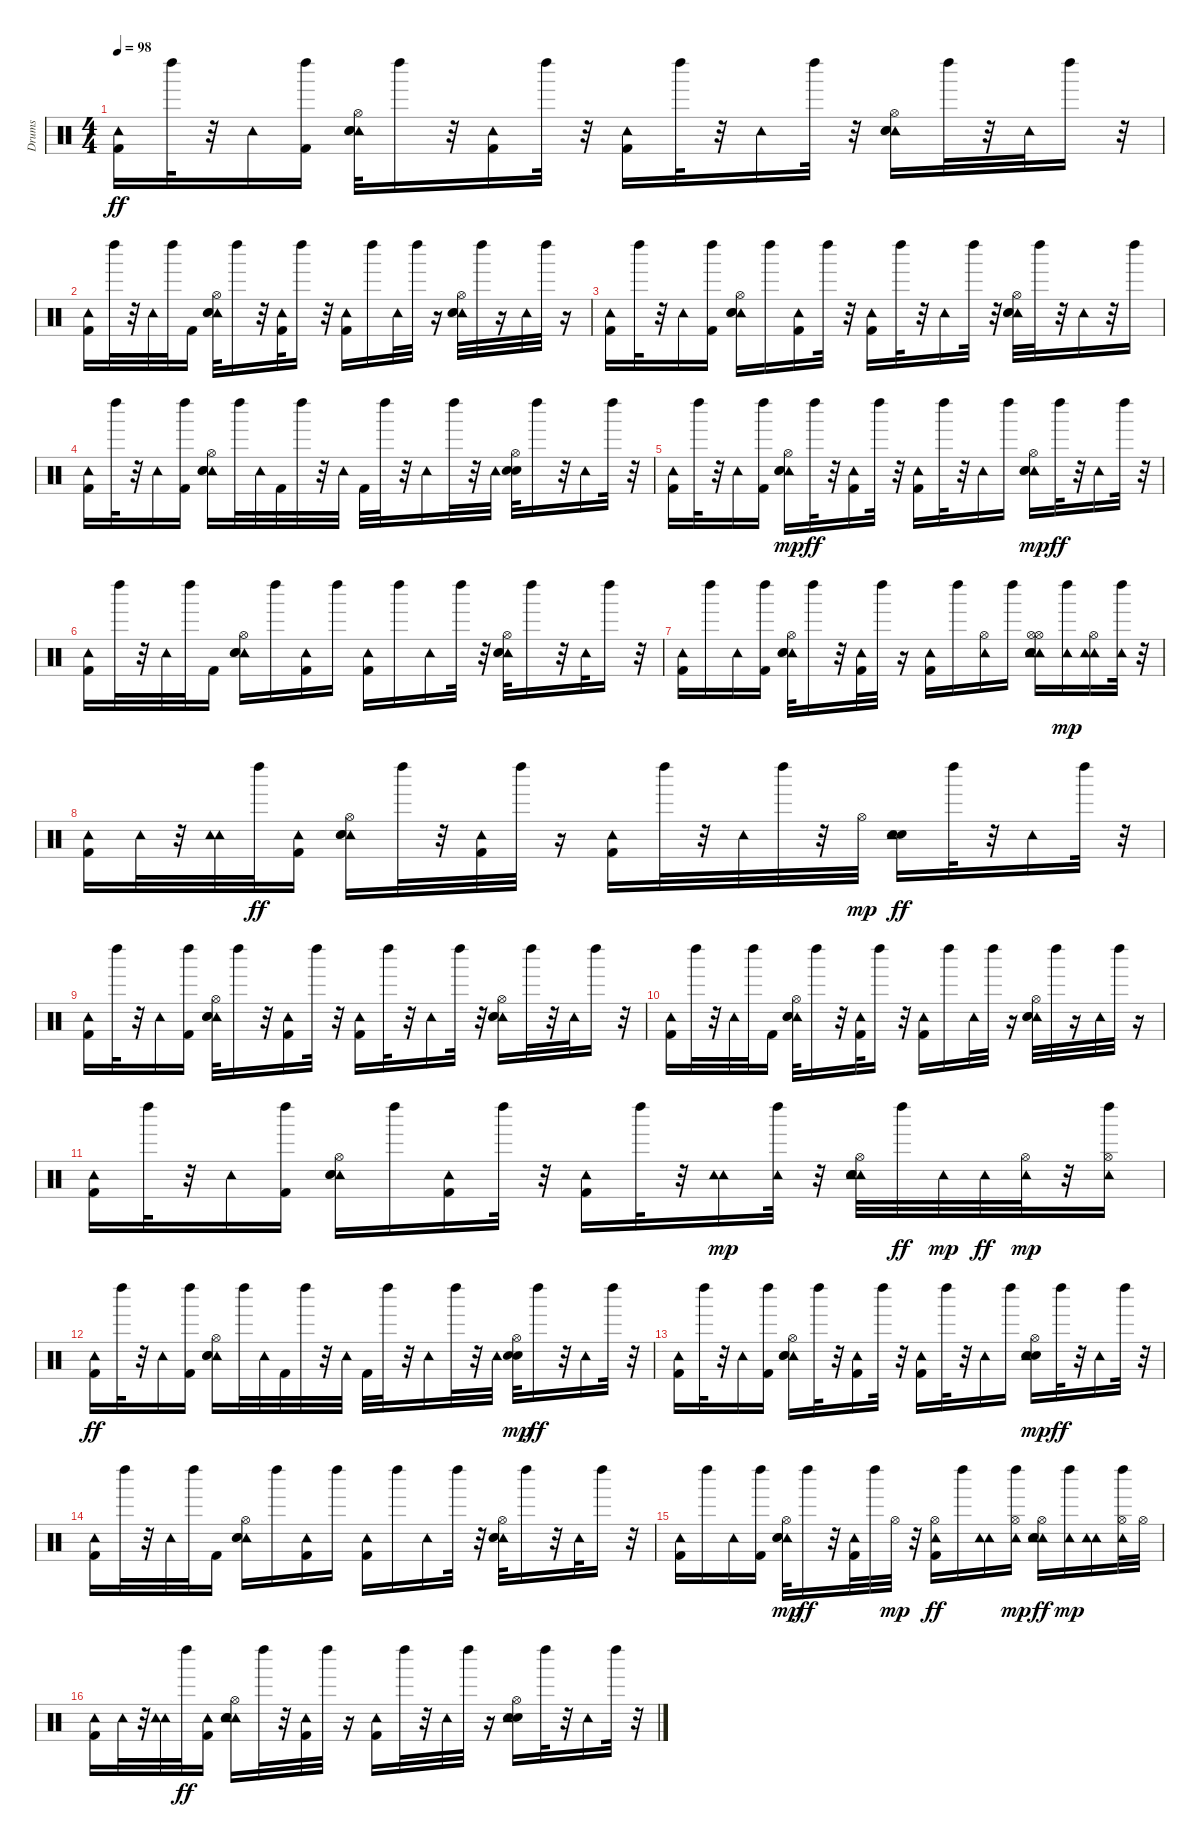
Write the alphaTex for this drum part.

\track ("Drums" "Drums") {instrument percussion}
\staff {score}
\articulation defaults
\ts (4 4)
\tempo 98
\clef neutral
\ks c
("Tambourine (hit)" "Kick (hit) 2").16{dy ff} "Left Maraca (hit)".32 r.32 "Tambourine (hit)".16 ("Left Maraca (hit)" "Kick (hit) 2").16 ("Tambourine (hit)" "Hi-Hat (open)" "Snare (hit) 2" "Electric Snare (hit)").32 "Left Maraca (hit)".16 r.32 ("Tambourine (hit)" "Kick (hit) 2").16 "Left Maraca (hit)".32 r.32 ("Tambourine (hit)" "Kick (hit) 2").16 "Left Maraca (hit)".32 r.32 "Tambourine (hit)".16 "Left Maraca (hit)".32 r.32 ("Tambourine (hit)" "Hi-Hat (open)" "Electric Snare (hit)" "Snare (hit) 2").16 "Left Maraca (hit)".32 r.32 "Tambourine (hit)".32 "Left Maraca (hit)".16 r.32 |
("Tambourine (hit)" "Kick (hit) 2").16 "Left Maraca (hit)".32 r.32 "Tambourine (hit)".32 "Left Maraca (hit)".32 "Kick (hit) 2".16 ("Tambourine (hit)" "Hi-Hat (open)" "Snare (hit) 2" "Electric Snare (hit)").32 "Left Maraca (hit)".16 r.32 ("Tambourine (hit)" "Kick (hit) 2").32 "Left Maraca (hit)".16 r.32 ("Tambourine (hit)" "Kick (hit) 2").16 "Left Maraca (hit)".16 "Tambourine (hit)".32 "Left Maraca (hit)".32 r.16 ("Tambourine (hit)" "Hi-Hat (open)" "Snare (hit) 2" "Electric Snare (hit)").32 "Left Maraca (hit)".32 r.16 "Tambourine (hit)".32 "Left Maraca (hit)".32 r.16 |
("Tambourine (hit)" "Kick (hit) 2").16 "Left Maraca (hit)".32 r.32 "Tambourine (hit)".16 ("Left Maraca (hit)" "Kick (hit) 2").16 ("Hi-Hat (open)" "Tambourine (hit)" "Electric Snare (hit)" "Snare (hit) 2").16 "Left Maraca (hit)".16 ("Tambourine (hit)" "Kick (hit) 2").16 "Left Maraca (hit)".32 r.32 ("Kick (hit) 2" "Tambourine (hit)").16 "Left Maraca (hit)".32 r.32 "Tambourine (hit)".16 "Left Maraca (hit)".32 r.32 ("Tambourine (hit)" "Hi-Hat (open)" "Snare (hit) 2" "Electric Snare (hit)").32 "Left Maraca (hit)".32 r.32 "Tambourine (hit)".16 r.32 "Left Maraca (hit)".16 |
("Tambourine (hit)" "Kick (hit) 2").16 "Left Maraca (hit)".32 r.32 "Tambourine (hit)".16 ("Left Maraca (hit)" "Kick (hit) 2").16 ("Tambourine (hit)" "Hi-Hat (open)" "Snare (hit) 2" "Electric Snare (hit)").16 "Left Maraca (hit)".32 "Tambourine (hit)".32 "Kick (hit) 2".32 "Left Maraca (hit)".32 r.32 "Tambourine (hit)".32 "Kick (hit) 2".32 "Left Maraca (hit)".32 r.32 "Tambourine (hit)".16 "Left Maraca (hit)".32 r.32 "Tambourine (hit)".32 ("Hi-Hat (open)" "Snare (hit) 2" "Electric Snare (hit)").32 "Left Maraca (hit)".16 r.32 "Tambourine (hit)".16 "Left Maraca (hit)".32 r.32 |
("Tambourine (hit)" "Kick (hit) 2").16 "Left Maraca (hit)".32 r.32 "Tambourine (hit)".16 ("Left Maraca (hit)" "Kick (hit) 2").16 ("Tambourine (hit)" "Electric Snare (hit)" "Snare (hit) 2" "Hi-Hat (open)").16{dy mp} "Left Maraca (hit)".32{dy ff} r.32 ("Tambourine (hit)" "Kick (hit) 2").16 "Left Maraca (hit)".32 r.32 ("Kick (hit) 2" "Tambourine (hit)").16 "Left Maraca (hit)".32 r.32 "Tambourine (hit)".16 "Left Maraca (hit)".16 ("Tambourine (hit)" "Electric Snare (hit)" "Snare (hit) 2" "Hi-Hat (open)").16{dy mp} "Left Maraca (hit)".32{dy ff} r.32 "Tambourine (hit)".16 "Left Maraca (hit)".32 r.32 |
("Tambourine (hit)" "Kick (hit) 2").16 "Left Maraca (hit)".32 r.32 "Tambourine (hit)".32 "Left Maraca (hit)".32 "Kick (hit) 2".16 ("Tambourine (hit)" "Hi-Hat (open)" "Electric Snare (hit)" "Snare (hit) 2").16 "Left Maraca (hit)".16 ("Tambourine (hit)" "Kick (hit) 2").16 "Left Maraca (hit)".16 ("Tambourine (hit)" "Kick (hit) 2").16 "Left Maraca (hit)".16 "Tambourine (hit)".16 "Left Maraca (hit)".32 r.32 ("Tambourine (hit)" "Hi-Hat (open)" "Snare (hit) 2" "Electric Snare (hit)").32 "Left Maraca (hit)".16 r.32 "Tambourine (hit)".32 "Left Maraca (hit)".16 r.32 |
("Tambourine (hit)" "Kick (hit) 2").16 "Left Maraca (hit)".16 "Tambourine (hit)".16 ("Left Maraca (hit)" "Kick (hit) 2").16 ("Hi-Hat (open)" "Tambourine (hit)" "Electric Snare (hit)" "Snare (hit) 2").32 "Left Maraca (hit)".16 r.32 ("Tambourine (hit)" "Kick (hit) 2").32 "Left Maraca (hit)".32 r.16 ("Tambourine (hit)" "Kick (hit) 2").16 "Left Maraca (hit)".16 ("Hi-Hat (open)" "Tambourine (hit)").16 "Left Maraca (hit)".16 ("Tambourine (hit)" "Hi-Hat (open)" "Hi-Hat (open)" "Tambourine (hit)" "Electric Snare (hit)" "Snare (hit) 2").16 ("Left Maraca (hit)" "Tambourine (hit)").16{dy mp} ("Hi-Hat (open)" "Tambourine (hit)" "Tambourine (hit)").16 ("Left Maraca (hit)" "Tambourine (hit)").32 r.32 |
("Kick (hit) 2" "Tambourine (hit)").16 "Tambourine (hit)".32 r.32 ("Tambourine (hit)" "Tambourine (hit)").32 "Left Maraca (hit)".32{dy ff} ("Tambourine (hit)" "Kick (hit) 2").16 ("Tambourine (hit)" "Hi-Hat (open)" "Electric Snare (hit)" "Snare (hit) 2").16 "Left Maraca (hit)".32 r.32 ("Tambourine (hit)" "Kick (hit) 2").32 "Left Maraca (hit)".32 r.16 ("Kick (hit) 2" "Tambourine (hit)").16 "Left Maraca (hit)".32 r.32 "Tambourine (hit)".32 "Left Maraca (hit)".32 r.32 "Hi-Hat (open)".32{dy mp} ("Electric Snare (hit)" "Snare (hit) 2" "Tambourine (hit)").16{dy ff} "Left Maraca (hit)".32 r.32 "Tambourine (hit)".16 "Left Maraca (hit)".32 r.32 |
("Tambourine (hit)" "Kick (hit) 2").16 "Left Maraca (hit)".32 r.32 "Tambourine (hit)".16 ("Left Maraca (hit)" "Kick (hit) 2").16 ("Tambourine (hit)" "Hi-Hat (open)" "Snare (hit) 2" "Electric Snare (hit)").32 "Left Maraca (hit)".16 r.32 ("Tambourine (hit)" "Kick (hit) 2").16 "Left Maraca (hit)".32 r.32 ("Tambourine (hit)" "Kick (hit) 2").16 "Left Maraca (hit)".32 r.32 "Tambourine (hit)".16 "Left Maraca (hit)".32 r.32 ("Hi-Hat (open)" "Tambourine (hit)" "Snare (hit) 2" "Electric Snare (hit)").16 "Left Maraca (hit)".32 r.32 "Tambourine (hit)".32 "Left Maraca (hit)".16 r.32 |
("Tambourine (hit)" "Kick (hit) 2").16 "Left Maraca (hit)".32 r.32 "Tambourine (hit)".32 "Left Maraca (hit)".32 "Kick (hit) 2".16 ("Tambourine (hit)" "Hi-Hat (open)" "Electric Snare (hit)" "Snare (hit) 2").32 "Left Maraca (hit)".16 r.32 ("Tambourine (hit)" "Kick (hit) 2").32 "Left Maraca (hit)".16 r.32 ("Tambourine (hit)" "Kick (hit) 2").16 "Left Maraca (hit)".16 "Tambourine (hit)".32 "Left Maraca (hit)".32 r.16 ("Tambourine (hit)" "Hi-Hat (open)" "Snare (hit) 2" "Electric Snare (hit)").32 "Left Maraca (hit)".32 r.16 "Tambourine (hit)".32 "Left Maraca (hit)".32 r.16 |
("Tambourine (hit)" "Kick (hit) 2").16 "Left Maraca (hit)".32 r.32 "Tambourine (hit)".16 ("Left Maraca (hit)" "Kick (hit) 2").16 ("Tambourine (hit)" "Hi-Hat (open)" "Electric Snare (hit)" "Snare (hit) 2").16 "Left Maraca (hit)".16 ("Kick (hit) 2" "Tambourine (hit)").16 "Left Maraca (hit)".32 r.32 ("Kick (hit) 2" "Tambourine (hit)").16 "Left Maraca (hit)".32 r.32 ("Tambourine (hit)" "Tambourine (hit)").16{dy mp} ("Left Maraca (hit)" "Tambourine (hit)").32 r.32 ("Tambourine (hit)" "Snare (hit) 2" "Electric Snare (hit)" "Hi-Hat (open)" "Tambourine (hit)").32 "Left Maraca (hit)".32{dy ff} "Tambourine (hit)".32{dy mp} "Tambourine (hit)".32{dy ff} ("Tambourine (hit)" "Hi-Hat (open)").32{dy mp} r.32 ("Left Maraca (hit)" "Hi-Hat (open)" "Tambourine (hit)").16 |
("Tambourine (hit)" "Kick (hit) 2").16{dy ff} "Left Maraca (hit)".32 r.32 "Tambourine (hit)".16 ("Left Maraca (hit)" "Kick (hit) 2").16 ("Hi-Hat (open)" "Tambourine (hit)" "Electric Snare (hit)" "Snare (hit) 2").16 "Left Maraca (hit)".32 "Tambourine (hit)".32 "Kick (hit) 2".32 "Left Maraca (hit)".32 r.32 "Tambourine (hit)".32 "Kick (hit) 2".32 "Left Maraca (hit)".32 r.32 "Tambourine (hit)".16 "Left Maraca (hit)".32 r.32 "Tambourine (hit)".32 ("Snare (hit) 2" "Electric Snare (hit)" "Hi-Hat (open)").32{dy mp} "Left Maraca (hit)".16{dy ff} r.32 "Tambourine (hit)".16 "Left Maraca (hit)".32 r.32 |
("Tambourine (hit)" "Kick (hit) 2").16 "Left Maraca (hit)".32 r.32 "Tambourine (hit)".16 ("Left Maraca (hit)" "Kick (hit) 2").16 ("Tambourine (hit)" "Hi-Hat (open)" "Snare (hit) 2" "Electric Snare (hit)").16 "Left Maraca (hit)".32 r.32 ("Tambourine (hit)" "Kick (hit) 2").16 "Left Maraca (hit)".32 r.32 ("Kick (hit) 2" "Tambourine (hit)").16 "Left Maraca (hit)".32 r.32 "Tambourine (hit)".16 "Left Maraca (hit)".16 ("Electric Snare (hit)" "Snare (hit) 2" "Tambourine (hit)" "Hi-Hat (open)").16{dy mp} "Left Maraca (hit)".32{dy ff} r.32 "Tambourine (hit)".16 "Left Maraca (hit)".32 r.32 |
("Tambourine (hit)" "Kick (hit) 2").16 "Left Maraca (hit)".32 r.32 "Tambourine (hit)".32 "Left Maraca (hit)".32 "Kick (hit) 2".16 ("Tambourine (hit)" "Hi-Hat (open)" "Snare (hit) 2" "Electric Snare (hit)").16 "Left Maraca (hit)".16 ("Tambourine (hit)" "Kick (hit) 2").16 "Left Maraca (hit)".16 ("Tambourine (hit)" "Kick (hit) 2").16 "Left Maraca (hit)".16 "Tambourine (hit)".16 "Left Maraca (hit)".32 r.32 ("Tambourine (hit)" "Hi-Hat (open)" "Snare (hit) 2" "Electric Snare (hit)").32 "Left Maraca (hit)".16 r.32 "Tambourine (hit)".32 "Left Maraca (hit)".16 r.32 |
("Tambourine (hit)" "Kick (hit) 2").16 "Left Maraca (hit)".16 "Tambourine (hit)".16 ("Left Maraca (hit)" "Kick (hit) 2").16 ("Tambourine (hit)" "Snare (hit) 2" "Electric Snare (hit)" "Hi-Hat (open)").32{dy mp} "Left Maraca (hit)".16{dy ff} r.32 ("Tambourine (hit)" "Kick (hit) 2").32 "Left Maraca (hit)".32 "Hi-Hat (open)".32{dy mp} r.32 ("Tambourine (hit)" "Hi-Hat (open)" "Kick (hit) 2").16{dy ff} "Left Maraca (hit)".16 ("Tambourine (hit)" "Tambourine (hit)").16 ("Left Maraca (hit)" "Tambourine (hit)" "Hi-Hat (open)").16{dy mp} ("Hi-Hat (open)" "Tambourine (hit)" "Tambourine (hit)" "Electric Snare (hit)" "Snare (hit) 2").16{dy ff} ("Left Maraca (hit)" "Tambourine (hit)").16{dy mp} ("Tambourine (hit)" "Tambourine (hit)").16 ("Hi-Hat (open)" "Left Maraca (hit)" "Tambourine (hit)").32 "Hi-Hat (open)".32 |
("Kick (hit) 2" "Tambourine (hit)").16 "Tambourine (hit)".32 r.32 ("Tambourine (hit)" "Tambourine (hit)").32 "Left Maraca (hit)".32{dy ff} ("Tambourine (hit)" "Kick (hit) 2").16 ("Tambourine (hit)" "Tambourine (hit)" "Hi-Hat (open)" "Electric Snare (hit)" "Snare (hit) 2").16 "Left Maraca (hit)".32 r.32 ("Tambourine (hit)" "Kick (hit) 2").32 "Left Maraca (hit)".32 r.16 ("Tambourine (hit)" "Kick (hit) 2").16 "Left Maraca (hit)".32 r.32 "Tambourine (hit)".32 "Left Maraca (hit)".32 r.16 ("Snare (hit) 2" "Electric Snare (hit)" "Hi-Hat (open)" "Tambourine (hit)").16 "Left Maraca (hit)".32 r.32 "Tambourine (hit)".16 "Left Maraca (hit)".32 r.32
